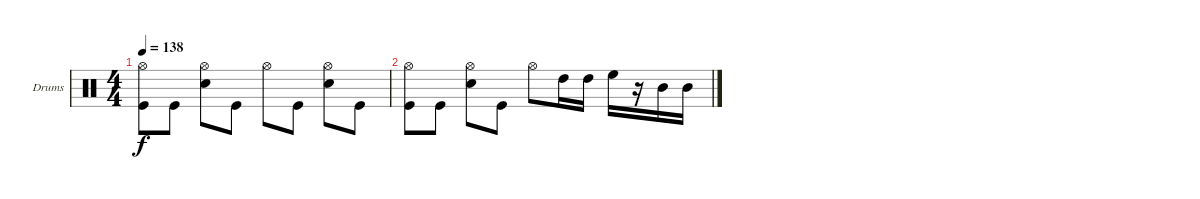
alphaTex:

\bracketExtendMode groupsimilarinstruments
\firstSystemTrackNameOrientation horizontal
\otherSystemsTrackNameOrientation horizontal
\track ("Drumkit" "Drums") {instrument percussion}
\staff {score}
\articulation defaults
\ts (4 4)
\tempo 138
\clef neutral
\ks c
("Hi-Hat (open)" "Kick (hit)").8{dy f} "Kick (hit)".8 ("Snare (hit) 2" "Hi-Hat (open)").8 "Kick (hit)".8 "Hi-Hat (open)".8 "Kick (hit)".8 ("Snare (hit) 2" "Hi-Hat (open)").8 "Kick (hit)".8 |
("Hi-Hat (open)" "Kick (hit)").8 "Kick (hit)".8 ("Snare (hit) 2" "Hi-Hat (open)").8 "Kick (hit)".8 "Hi-Hat (open)".8 "High Tom (hit)".16 "High Tom (hit)".16 "High Floor Tom (hit)".16 r.16 "Mid Tom (hit)".16 "Mid Tom (hit)".16
